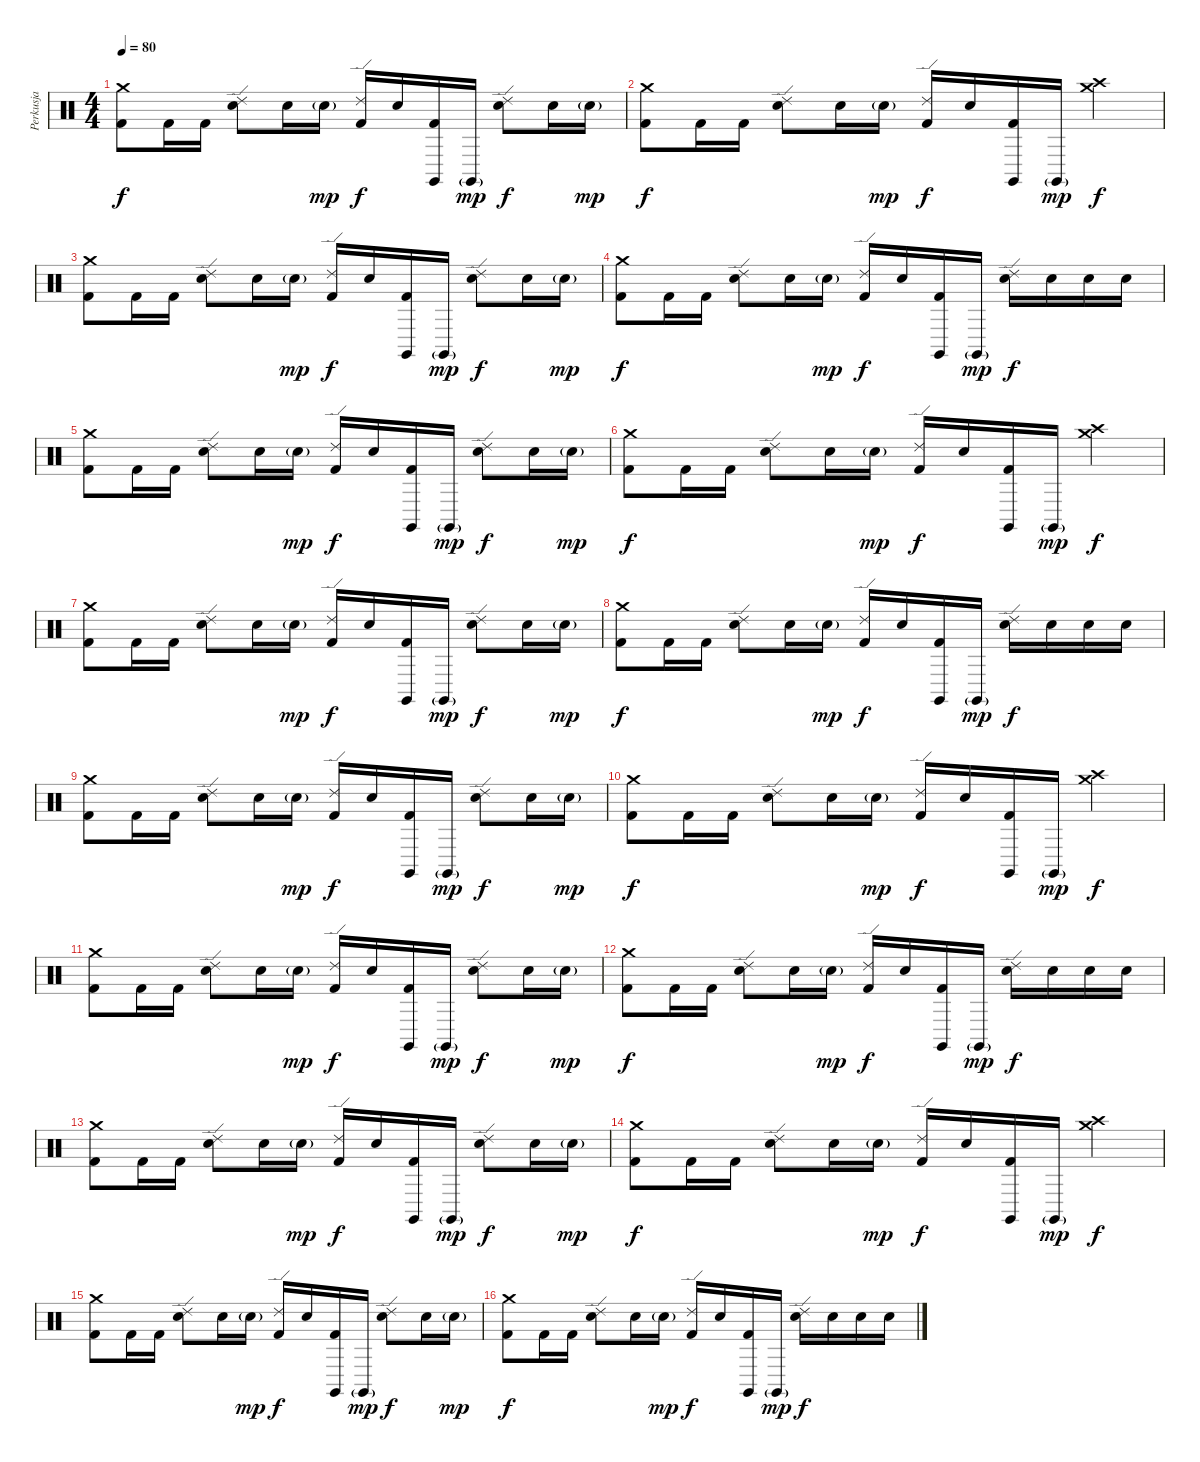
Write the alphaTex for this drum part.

\track ("Perkusja" "Perkusja") {instrument percussion}
\staff {score}
\articulation defaults
\ts (4 4)
\tempo 80
\clef neutral
\ks c
("Crash medium (hit)" "Kick (hit) 2").8{dy f} "Kick (hit) 2".16 "Kick (hit) 2".16 ("Ride (edge) 2" "Snare (hit) 2").8 "Snare (hit) 2".16 "Snare (hit) 2"{g}.16{dy mp} ("Ride (edge) 2" "Kick (hit) 2").16{dy f} "Snare (hit) 2".16 ("Claves (hit)" "Kick (hit) 2").16 "Claves (hit)"{g}.16{dy mp} ("Ride (edge) 2" "Snare (hit) 2").8{dy f} "Snare (hit) 2".16 "Snare (hit) 2"{g}.16{dy mp} |
("Crash medium (hit)" "Kick (hit) 2").8{dy f} "Kick (hit) 2".16 "Kick (hit) 2".16 ("Ride (edge) 2" "Snare (hit) 2").8 "Snare (hit) 2".16 "Snare (hit) 2"{g}.16{dy mp} ("Ride (edge) 2" "Kick (hit) 2").16{dy f} "Snare (hit) 2".16 ("Claves (hit)" "Kick (hit) 2").16 "Claves (hit)"{g}.16{dy mp} ("Crash high (hit)" "Crash medium (hit)").4{dy f} |
("Crash medium (hit)" "Kick (hit) 2").8 "Kick (hit) 2".16 "Kick (hit) 2".16 ("Ride (edge) 2" "Snare (hit) 2").8 "Snare (hit) 2".16 "Snare (hit) 2"{g}.16{dy mp} ("Ride (edge) 2" "Kick (hit) 2").16{dy f} "Snare (hit) 2".16 ("Claves (hit)" "Kick (hit) 2").16 "Claves (hit)"{g}.16{dy mp} ("Ride (edge) 2" "Snare (hit) 2").8{dy f} "Snare (hit) 2".16 "Snare (hit) 2"{g}.16{dy mp} |
("Crash medium (hit)" "Kick (hit) 2").8{dy f} "Kick (hit) 2".16 "Kick (hit) 2".16 ("Ride (edge) 2" "Snare (hit) 2").8 "Snare (hit) 2".16 "Snare (hit) 2"{g}.16{dy mp} ("Ride (edge) 2" "Kick (hit) 2").16{dy f} "Snare (hit) 2".16 ("Claves (hit)" "Kick (hit) 2").16 "Claves (hit)"{g}.16{dy mp} ("Ride (edge) 2" "Snare (hit) 2").16{dy f} "Electric Snare (hit)".16 "Electric Snare (hit)".16 "Electric Snare (hit)".16 |
("Crash medium (hit)" "Kick (hit) 2").8 "Kick (hit) 2".16 "Kick (hit) 2".16 ("Ride (edge) 2" "Snare (hit) 2").8 "Snare (hit) 2".16 "Snare (hit) 2"{g}.16{dy mp} ("Ride (edge) 2" "Kick (hit) 2").16{dy f} "Snare (hit) 2".16 ("Claves (hit)" "Kick (hit) 2").16 "Claves (hit)"{g}.16{dy mp} ("Ride (edge) 2" "Snare (hit) 2").8{dy f} "Snare (hit) 2".16 "Snare (hit) 2"{g}.16{dy mp} |
("Crash medium (hit)" "Kick (hit) 2").8{dy f} "Kick (hit) 2".16 "Kick (hit) 2".16 ("Ride (edge) 2" "Snare (hit) 2").8 "Snare (hit) 2".16 "Snare (hit) 2"{g}.16{dy mp} ("Ride (edge) 2" "Kick (hit) 2").16{dy f} "Snare (hit) 2".16 ("Claves (hit)" "Kick (hit) 2").16 "Claves (hit)"{g}.16{dy mp} ("Crash high (hit)" "Crash medium (hit)").4{dy f} |
("Crash medium (hit)" "Kick (hit) 2").8 "Kick (hit) 2".16 "Kick (hit) 2".16 ("Ride (edge) 2" "Snare (hit) 2").8 "Snare (hit) 2".16 "Snare (hit) 2"{g}.16{dy mp} ("Ride (edge) 2" "Kick (hit) 2").16{dy f} "Snare (hit) 2".16 ("Claves (hit)" "Kick (hit) 2").16 "Claves (hit)"{g}.16{dy mp} ("Ride (edge) 2" "Snare (hit) 2").8{dy f} "Snare (hit) 2".16 "Snare (hit) 2"{g}.16{dy mp} |
("Crash medium (hit)" "Kick (hit) 2").8{dy f} "Kick (hit) 2".16 "Kick (hit) 2".16 ("Ride (edge) 2" "Snare (hit) 2").8 "Snare (hit) 2".16 "Snare (hit) 2"{g}.16{dy mp} ("Ride (edge) 2" "Kick (hit) 2").16{dy f} "Snare (hit) 2".16 ("Claves (hit)" "Kick (hit) 2").16 "Claves (hit)"{g}.16{dy mp} ("Ride (edge) 2" "Snare (hit) 2").16{dy f} "Electric Snare (hit)".16 "Electric Snare (hit)".16 "Electric Snare (hit)".16 |
("Crash medium (hit)" "Kick (hit) 2").8 "Kick (hit) 2".16 "Kick (hit) 2".16 ("Ride (edge) 2" "Snare (hit) 2").8 "Snare (hit) 2".16 "Snare (hit) 2"{g}.16{dy mp} ("Ride (edge) 2" "Kick (hit) 2").16{dy f} "Snare (hit) 2".16 ("Claves (hit)" "Kick (hit) 2").16 "Claves (hit)"{g}.16{dy mp} ("Ride (edge) 2" "Snare (hit) 2").8{dy f} "Snare (hit) 2".16 "Snare (hit) 2"{g}.16{dy mp} |
("Crash medium (hit)" "Kick (hit) 2").8{dy f} "Kick (hit) 2".16 "Kick (hit) 2".16 ("Ride (edge) 2" "Snare (hit) 2").8 "Snare (hit) 2".16 "Snare (hit) 2"{g}.16{dy mp} ("Ride (edge) 2" "Kick (hit) 2").16{dy f} "Snare (hit) 2".16 ("Claves (hit)" "Kick (hit) 2").16 "Claves (hit)"{g}.16{dy mp} ("Crash high (hit)" "Crash medium (hit)").4{dy f} |
("Crash medium (hit)" "Kick (hit) 2").8 "Kick (hit) 2".16 "Kick (hit) 2".16 ("Ride (edge) 2" "Snare (hit) 2").8 "Snare (hit) 2".16 "Snare (hit) 2"{g}.16{dy mp} ("Ride (edge) 2" "Kick (hit) 2").16{dy f} "Snare (hit) 2".16 ("Claves (hit)" "Kick (hit) 2").16 "Claves (hit)"{g}.16{dy mp} ("Ride (edge) 2" "Snare (hit) 2").8{dy f} "Snare (hit) 2".16 "Snare (hit) 2"{g}.16{dy mp} |
("Crash medium (hit)" "Kick (hit) 2").8{dy f} "Kick (hit) 2".16 "Kick (hit) 2".16 ("Ride (edge) 2" "Snare (hit) 2").8 "Snare (hit) 2".16 "Snare (hit) 2"{g}.16{dy mp} ("Ride (edge) 2" "Kick (hit) 2").16{dy f} "Snare (hit) 2".16 ("Claves (hit)" "Kick (hit) 2").16 "Claves (hit)"{g}.16{dy mp} ("Ride (edge) 2" "Snare (hit) 2").16{dy f} "Electric Snare (hit)".16 "Electric Snare (hit)".16 "Electric Snare (hit)".16 |
("Crash medium (hit)" "Kick (hit) 2").8 "Kick (hit) 2".16 "Kick (hit) 2".16 ("Ride (edge) 2" "Snare (hit) 2").8 "Snare (hit) 2".16 "Snare (hit) 2"{g}.16{dy mp} ("Ride (edge) 2" "Kick (hit) 2").16{dy f} "Snare (hit) 2".16 ("Claves (hit)" "Kick (hit) 2").16 "Claves (hit)"{g}.16{dy mp} ("Ride (edge) 2" "Snare (hit) 2").8{dy f} "Snare (hit) 2".16 "Snare (hit) 2"{g}.16{dy mp} |
("Crash medium (hit)" "Kick (hit) 2").8{dy f} "Kick (hit) 2".16 "Kick (hit) 2".16 ("Ride (edge) 2" "Snare (hit) 2").8 "Snare (hit) 2".16 "Snare (hit) 2"{g}.16{dy mp} ("Ride (edge) 2" "Kick (hit) 2").16{dy f} "Snare (hit) 2".16 ("Claves (hit)" "Kick (hit) 2").16 "Claves (hit)"{g}.16{dy mp} ("Crash high (hit)" "Crash medium (hit)").4{dy f} |
("Crash medium (hit)" "Kick (hit) 2").8 "Kick (hit) 2".16 "Kick (hit) 2".16 ("Ride (edge) 2" "Snare (hit) 2").8 "Snare (hit) 2".16 "Snare (hit) 2"{g}.16{dy mp} ("Ride (edge) 2" "Kick (hit) 2").16{dy f} "Snare (hit) 2".16 ("Claves (hit)" "Kick (hit) 2").16 "Claves (hit)"{g}.16{dy mp} ("Ride (edge) 2" "Snare (hit) 2").8{dy f} "Snare (hit) 2".16 "Snare (hit) 2"{g}.16{dy mp} |
("Crash medium (hit)" "Kick (hit) 2").8{dy f} "Kick (hit) 2".16 "Kick (hit) 2".16 ("Ride (edge) 2" "Snare (hit) 2").8 "Snare (hit) 2".16 "Snare (hit) 2"{g}.16{dy mp} ("Ride (edge) 2" "Kick (hit) 2").16{dy f} "Snare (hit) 2".16 ("Claves (hit)" "Kick (hit) 2").16 "Claves (hit)"{g}.16{dy mp} ("Ride (edge) 2" "Snare (hit) 2").16{dy f} "Electric Snare (hit)".16 "Electric Snare (hit)".16 "Electric Snare (hit)".16
